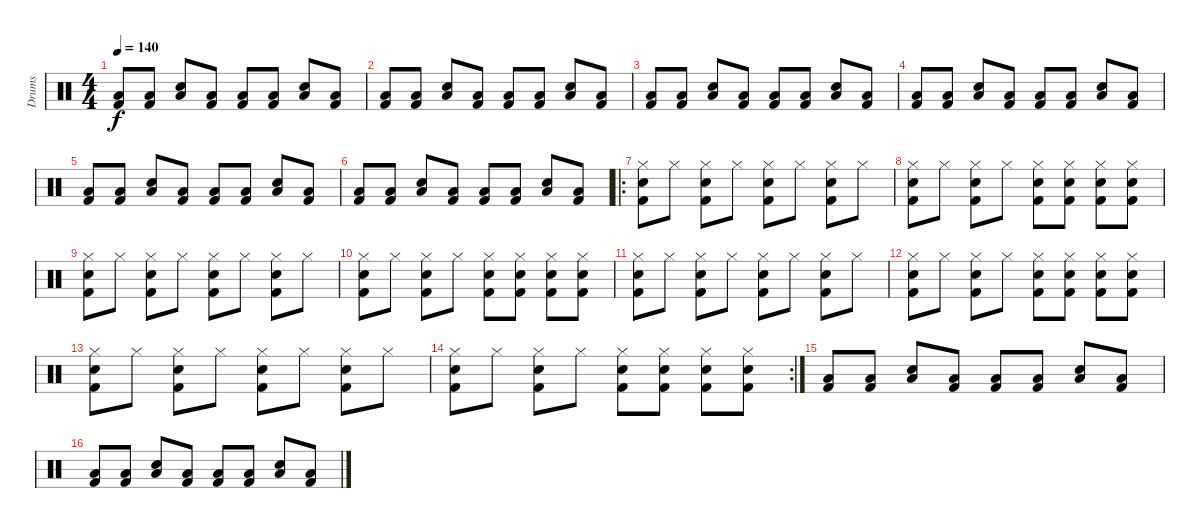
\track ("Drums" "Drums") {instrument percussion}
\staff {score}
\articulation defaults
\ts (4 4)
\tempo 140
\clef neutral
\ks c
("Low Floor Tom (hit)" "Kick (hit) 2").8{dy f} ("Low Floor Tom (hit)" "Kick (hit) 2").8 ("Low Floor Tom (hit)" "Snare (hit) 2").8 ("Low Floor Tom (hit)" "Kick (hit) 2").8 ("Low Floor Tom (hit)" "Kick (hit) 2").8 ("Low Floor Tom (hit)" "Kick (hit) 2").8 ("Low Floor Tom (hit)" "Snare (hit) 2").8 ("Low Floor Tom (hit)" "Kick (hit) 2").8 |
("Low Floor Tom (hit)" "Kick (hit) 2").8 ("Low Floor Tom (hit)" "Kick (hit) 2").8 ("Low Floor Tom (hit)" "Snare (hit) 2").8 ("Low Floor Tom (hit)" "Kick (hit) 2").8 ("Low Floor Tom (hit)" "Kick (hit) 2").8 ("Low Floor Tom (hit)" "Kick (hit) 2").8 ("Low Floor Tom (hit)" "Snare (hit) 2").8 ("Low Floor Tom (hit)" "Kick (hit) 2").8 |
("Low Floor Tom (hit)" "Kick (hit) 2").8 ("Low Floor Tom (hit)" "Kick (hit) 2").8 ("Low Floor Tom (hit)" "Snare (hit) 2").8 ("Low Floor Tom (hit)" "Kick (hit) 2").8 ("Low Floor Tom (hit)" "Kick (hit) 2").8 ("Low Floor Tom (hit)" "Kick (hit) 2").8 ("Low Floor Tom (hit)" "Snare (hit) 2").8 ("Low Floor Tom (hit)" "Kick (hit) 2").8 |
("Low Floor Tom (hit)" "Kick (hit) 2").8 ("Low Floor Tom (hit)" "Kick (hit) 2").8 ("Low Floor Tom (hit)" "Snare (hit) 2").8 ("Low Floor Tom (hit)" "Kick (hit) 2").8 ("Low Floor Tom (hit)" "Kick (hit) 2").8 ("Low Floor Tom (hit)" "Kick (hit) 2").8 ("Low Floor Tom (hit)" "Snare (hit) 2").8 ("Low Floor Tom (hit)" "Kick (hit) 2").8 |
("Low Floor Tom (hit)" "Kick (hit) 2").8 ("Low Floor Tom (hit)" "Kick (hit) 2").8 ("Low Floor Tom (hit)" "Snare (hit) 2").8 ("Low Floor Tom (hit)" "Kick (hit) 2").8 ("Low Floor Tom (hit)" "Kick (hit) 2").8 ("Low Floor Tom (hit)" "Kick (hit) 2").8 ("Low Floor Tom (hit)" "Snare (hit) 2").8 ("Low Floor Tom (hit)" "Kick (hit) 2").8 |
("Low Floor Tom (hit)" "Kick (hit) 2").8 ("Low Floor Tom (hit)" "Kick (hit) 2").8 ("Low Floor Tom (hit)" "Snare (hit) 2").8 ("Low Floor Tom (hit)" "Kick (hit) 2").8 ("Low Floor Tom (hit)" "Kick (hit) 2").8 ("Low Floor Tom (hit)" "Kick (hit) 2").8 ("Low Floor Tom (hit)" "Snare (hit) 2").8 ("Low Floor Tom (hit)" "Kick (hit) 2").8 |
\ro
("Hi-Hat (closed)" "Snare (hit) 2" "Kick (hit) 2").8 "Hi-Hat (closed)".8 ("Hi-Hat (closed)" "Snare (hit) 2" "Kick (hit) 2").8 "Hi-Hat (closed)".8 ("Hi-Hat (closed)" "Snare (hit) 2" "Kick (hit) 2").8 "Hi-Hat (closed)".8 ("Hi-Hat (closed)" "Snare (hit) 2" "Kick (hit) 2").8 "Hi-Hat (closed)".8 |
("Hi-Hat (closed)" "Snare (hit) 2" "Kick (hit) 2").8 "Hi-Hat (closed)".8 ("Hi-Hat (closed)" "Snare (hit) 2" "Kick (hit) 2").8 "Hi-Hat (closed)".8 ("Hi-Hat (closed)" "Snare (hit) 2" "Kick (hit) 2").8 ("Hi-Hat (closed)" "Snare (hit) 2" "Kick (hit) 2").8 ("Hi-Hat (closed)" "Snare (hit) 2" "Kick (hit) 2").8 ("Hi-Hat (closed)" "Snare (hit) 2" "Kick (hit) 2").8 |
("Hi-Hat (closed)" "Snare (hit) 2" "Kick (hit) 2").8 "Hi-Hat (closed)".8 ("Hi-Hat (closed)" "Snare (hit) 2" "Kick (hit) 2").8 "Hi-Hat (closed)".8 ("Hi-Hat (closed)" "Snare (hit) 2" "Kick (hit) 2").8 "Hi-Hat (closed)".8 ("Hi-Hat (closed)" "Snare (hit) 2" "Kick (hit) 2").8 "Hi-Hat (closed)".8 |
("Hi-Hat (closed)" "Snare (hit) 2" "Kick (hit) 2").8 "Hi-Hat (closed)".8 ("Hi-Hat (closed)" "Snare (hit) 2" "Kick (hit) 2").8 "Hi-Hat (closed)".8 ("Hi-Hat (closed)" "Snare (hit) 2" "Kick (hit) 2").8 ("Hi-Hat (closed)" "Snare (hit) 2" "Kick (hit) 2").8 ("Hi-Hat (closed)" "Snare (hit) 2" "Kick (hit) 2").8 ("Hi-Hat (closed)" "Snare (hit) 2" "Kick (hit) 2").8 |
("Hi-Hat (closed)" "Snare (hit) 2" "Kick (hit) 2").8 "Hi-Hat (closed)".8 ("Hi-Hat (closed)" "Snare (hit) 2" "Kick (hit) 2").8 "Hi-Hat (closed)".8 ("Hi-Hat (closed)" "Snare (hit) 2" "Kick (hit) 2").8 "Hi-Hat (closed)".8 ("Hi-Hat (closed)" "Snare (hit) 2" "Kick (hit) 2").8 "Hi-Hat (closed)".8 |
("Hi-Hat (closed)" "Snare (hit) 2" "Kick (hit) 2").8 "Hi-Hat (closed)".8 ("Hi-Hat (closed)" "Snare (hit) 2" "Kick (hit) 2").8 "Hi-Hat (closed)".8 ("Hi-Hat (closed)" "Snare (hit) 2" "Kick (hit) 2").8 ("Hi-Hat (closed)" "Snare (hit) 2" "Kick (hit) 2").8 ("Hi-Hat (closed)" "Snare (hit) 2" "Kick (hit) 2").8 ("Hi-Hat (closed)" "Snare (hit) 2" "Kick (hit) 2").8 |
("Hi-Hat (closed)" "Snare (hit) 2" "Kick (hit) 2").8 "Hi-Hat (closed)".8 ("Hi-Hat (closed)" "Snare (hit) 2" "Kick (hit) 2").8 "Hi-Hat (closed)".8 ("Hi-Hat (closed)" "Snare (hit) 2" "Kick (hit) 2").8 "Hi-Hat (closed)".8 ("Hi-Hat (closed)" "Snare (hit) 2" "Kick (hit) 2").8 "Hi-Hat (closed)".8 |
\rc 2
("Hi-Hat (closed)" "Snare (hit) 2" "Kick (hit) 2").8 "Hi-Hat (closed)".8 ("Hi-Hat (closed)" "Snare (hit) 2" "Kick (hit) 2").8 "Hi-Hat (closed)".8 ("Hi-Hat (closed)" "Snare (hit) 2" "Kick (hit) 2").8 ("Hi-Hat (closed)" "Snare (hit) 2" "Kick (hit) 2").8 ("Hi-Hat (closed)" "Snare (hit) 2" "Kick (hit) 2").8 ("Hi-Hat (closed)" "Snare (hit) 2" "Kick (hit) 2").8 |
("Low Floor Tom (hit)" "Kick (hit) 2").8 ("Low Floor Tom (hit)" "Kick (hit) 2").8 ("Low Floor Tom (hit)" "Snare (hit) 2").8 ("Low Floor Tom (hit)" "Kick (hit) 2").8 ("Low Floor Tom (hit)" "Kick (hit) 2").8 ("Low Floor Tom (hit)" "Kick (hit) 2").8 ("Low Floor Tom (hit)" "Snare (hit) 2").8 ("Low Floor Tom (hit)" "Kick (hit) 2").8 |
("Low Floor Tom (hit)" "Kick (hit) 2").8 ("Low Floor Tom (hit)" "Kick (hit) 2").8 ("Low Floor Tom (hit)" "Snare (hit) 2").8 ("Low Floor Tom (hit)" "Kick (hit) 2").8 ("Low Floor Tom (hit)" "Kick (hit) 2").8 ("Low Floor Tom (hit)" "Kick (hit) 2").8 ("Low Floor Tom (hit)" "Snare (hit) 2").8 ("Low Floor Tom (hit)" "Kick (hit) 2").8
